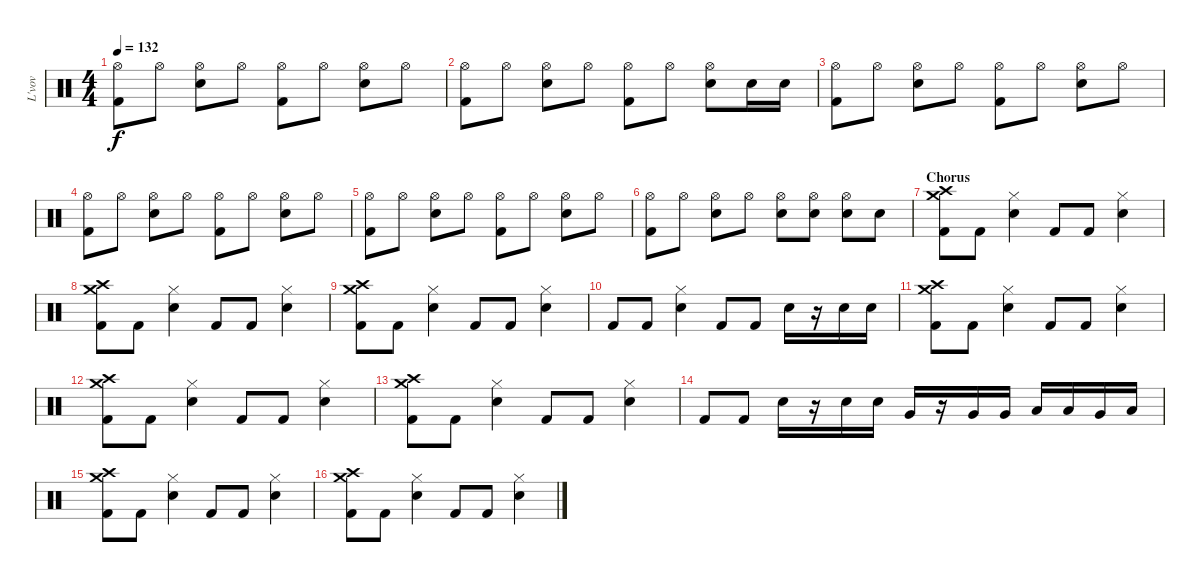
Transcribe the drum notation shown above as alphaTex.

\track ("L'vov" "L'vov") {instrument percussion}
\staff {score}
\articulation defaults
\ts (4 4)
\tempo 132
\clef neutral
\ks c
("Hi-Hat (open)" "Kick (hit) 2").8{dy f} "Hi-Hat (open)".8 ("Hi-Hat (open)" "Snare (hit) 2").8 "Hi-Hat (open)".8 ("Hi-Hat (open)" "Kick (hit) 2").8 "Hi-Hat (open)".8 ("Hi-Hat (open)" "Snare (hit) 2").8 "Hi-Hat (open)".8 |
("Hi-Hat (open)" "Kick (hit) 2").8 "Hi-Hat (open)".8 ("Hi-Hat (open)" "Snare (hit) 2").8 "Hi-Hat (open)".8 ("Hi-Hat (open)" "Kick (hit) 2").8 "Hi-Hat (open)".8 ("Hi-Hat (open)" "Snare (hit) 2").8 "Snare (hit) 2".16 "Snare (hit) 2".16 |
("Hi-Hat (open)" "Kick (hit) 2").8 "Hi-Hat (open)".8 ("Hi-Hat (open)" "Snare (hit) 2").8 "Hi-Hat (open)".8 ("Hi-Hat (open)" "Kick (hit) 2").8 "Hi-Hat (open)".8 ("Hi-Hat (open)" "Snare (hit) 2").8 "Hi-Hat (open)".8 |
("Hi-Hat (open)" "Kick (hit) 2").8 "Hi-Hat (open)".8 ("Hi-Hat (open)" "Snare (hit) 2").8 "Hi-Hat (open)".8 ("Hi-Hat (open)" "Kick (hit) 2").8 "Hi-Hat (open)".8 ("Hi-Hat (open)" "Snare (hit) 2").8 "Hi-Hat (open)".8 |
("Hi-Hat (open)" "Kick (hit) 2").8 "Hi-Hat (open)".8 ("Hi-Hat (open)" "Snare (hit) 2").8 "Hi-Hat (open)".8 ("Hi-Hat (open)" "Kick (hit) 2").8 "Hi-Hat (open)".8 ("Hi-Hat (open)" "Snare (hit) 2").8 "Hi-Hat (open)".8 |
("Hi-Hat (open)" "Kick (hit) 2").8 "Hi-Hat (open)".8 ("Hi-Hat (open)" "Snare (hit) 2").8 "Hi-Hat (open)".8 ("Hi-Hat (open)" "Snare (hit) 2").8 ("Hi-Hat (open)" "Snare (hit) 2").8 ("Hi-Hat (open)" "Snare (hit) 2").8 "Snare (hit) 2".8 |
\section ("" "Chorus")
("Kick (hit) 2" "Crash high (hit)" "Crash medium (hit)").8 "Kick (hit) 2".8 ("Snare (hit) 2" "Hi-Hat (closed)").4 "Kick (hit) 2".8 "Kick (hit) 2".8 ("Snare (hit) 2" "Hi-Hat (closed)").4 |
("Kick (hit) 2" "Crash high (hit)" "Crash medium (hit)").8 "Kick (hit) 2".8 ("Snare (hit) 2" "Hi-Hat (closed)").4 "Kick (hit) 2".8 "Kick (hit) 2".8 ("Snare (hit) 2" "Hi-Hat (closed)").4 |
("Kick (hit) 2" "Crash high (hit)" "Crash medium (hit)").8 "Kick (hit) 2".8 ("Snare (hit) 2" "Hi-Hat (closed)").4 "Kick (hit) 2".8 "Kick (hit) 2".8 ("Snare (hit) 2" "Hi-Hat (closed)").4 |
"Kick (hit) 2".8 "Kick (hit) 2".8 ("Snare (hit) 2" "Hi-Hat (closed)").4 "Kick (hit) 2".8 "Kick (hit) 2".8 "Snare (hit) 2".16 r.16 "Snare (hit) 2".16 "Snare (hit) 2".16 |
("Kick (hit) 2" "Crash high (hit)" "Crash medium (hit)").8 "Kick (hit) 2".8 ("Snare (hit) 2" "Hi-Hat (closed)").4 "Kick (hit) 2".8 "Kick (hit) 2".8 ("Snare (hit) 2" "Hi-Hat (closed)").4 |
("Kick (hit) 2" "Crash high (hit)" "Crash medium (hit)").8 "Kick (hit) 2".8 ("Snare (hit) 2" "Hi-Hat (closed)").4 "Kick (hit) 2".8 "Kick (hit) 2".8 ("Snare (hit) 2" "Hi-Hat (closed)").4 |
("Kick (hit) 2" "Crash high (hit)" "Crash medium (hit)").8 "Kick (hit) 2".8 ("Snare (hit) 2" "Hi-Hat (closed)").4 "Kick (hit) 2".8 "Kick (hit) 2".8 ("Snare (hit) 2" "Hi-Hat (closed)").4 |
"Kick (hit) 2".8 "Kick (hit) 2".8 "Snare (hit) 2".16 r.16 "Snare (hit) 2".16 "Snare (hit) 2".16 "Very Low Tom (hit)".16 r.16 "Very Low Tom (hit)".16 "Very Low Tom (hit)".16 "Low Floor Tom (hit)".16 "Low Floor Tom (hit)".16 "Very Low Tom (hit)".16 "Low Tom (hit)".16 |
("Kick (hit) 2" "Crash high (hit)" "Crash medium (hit)").8 "Kick (hit) 2".8 ("Snare (hit) 2" "Hi-Hat (closed)").4 "Kick (hit) 2".8 "Kick (hit) 2".8 ("Snare (hit) 2" "Hi-Hat (closed)").4 |
("Kick (hit) 2" "Crash high (hit)" "Crash medium (hit)").8 "Kick (hit) 2".8 ("Snare (hit) 2" "Hi-Hat (closed)").4 "Kick (hit) 2".8 "Kick (hit) 2".8 ("Snare (hit) 2" "Hi-Hat (closed)").4
